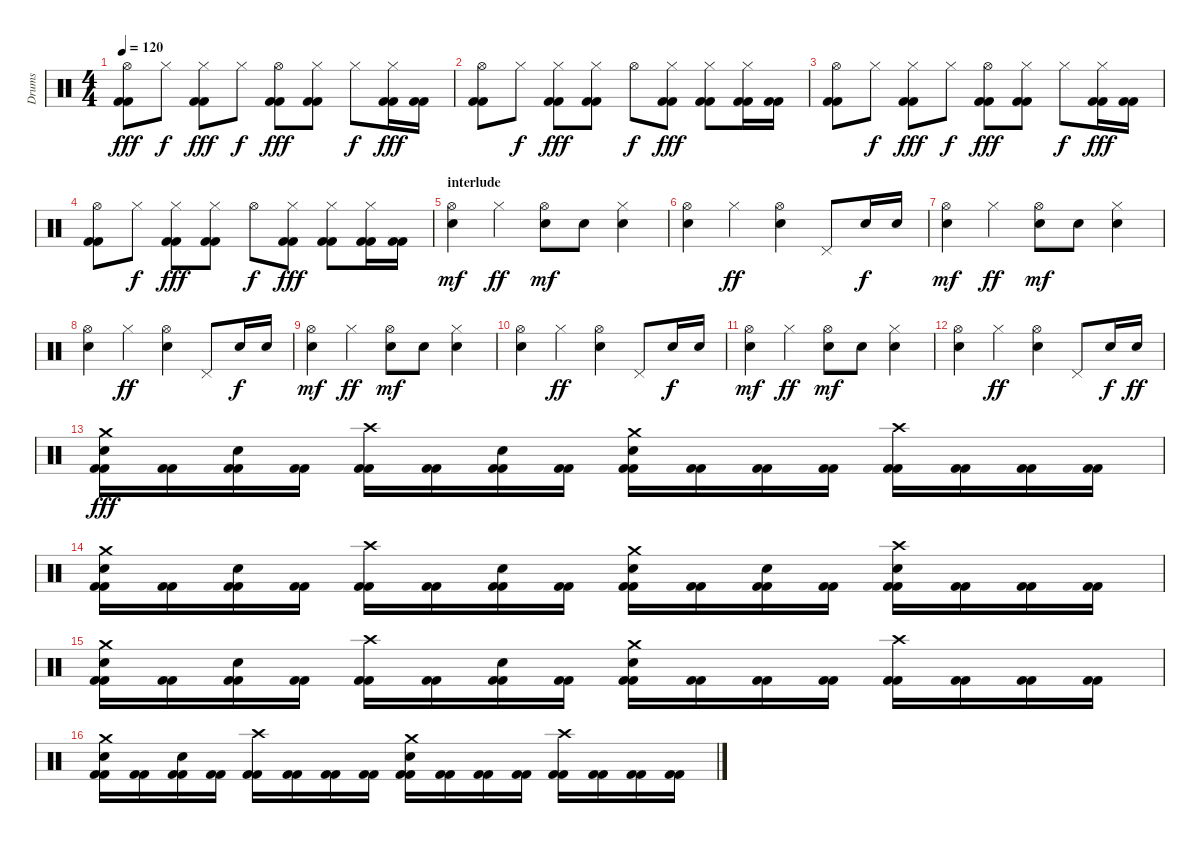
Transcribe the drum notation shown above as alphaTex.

\track ("Drums" "Drums") {instrument percussion}
\staff {score}
\articulation defaults
\ts (4 4)
\tempo 120
\clef neutral
\ks c
("Hi-Hat (open)" "Kick (hit) 2" "Kick (hit) 2").8{dy fff} "Hi-Hat (closed)".8{dy f} ("Hi-Hat (closed)" "Kick (hit) 2" "Kick (hit) 2").8{dy fff} "Hi-Hat (closed)".8{dy f} ("Hi-Hat (open)" "Kick (hit) 2" "Kick (hit) 2").8{dy fff} ("Hi-Hat (closed)" "Kick (hit) 2" "Kick (hit) 2").8 "Hi-Hat (closed)".8{dy f} ("Hi-Hat (closed)" "Kick (hit) 2" "Kick (hit) 2").16{dy fff} ("Kick (hit) 2" "Kick (hit) 2").16 |
("Hi-Hat (open)" "Kick (hit) 2" "Kick (hit) 2").8 "Hi-Hat (closed)".8{dy f} ("Hi-Hat (closed)" "Kick (hit) 2" "Kick (hit) 2").8{dy fff} ("Hi-Hat (closed)" "Kick (hit) 2" "Kick (hit) 2").8 "Hi-Hat (open)".8{dy f} ("Hi-Hat (closed)" "Kick (hit) 2" "Kick (hit) 2").8{dy fff} ("Hi-Hat (closed)" "Kick (hit) 2" "Kick (hit) 2").8 ("Hi-Hat (closed)" "Kick (hit) 2" "Kick (hit) 2").16 ("Kick (hit) 2" "Kick (hit) 2").16 |
("Hi-Hat (open)" "Kick (hit) 2" "Kick (hit) 2").8 "Hi-Hat (closed)".8{dy f} ("Hi-Hat (closed)" "Kick (hit) 2" "Kick (hit) 2").8{dy fff} "Hi-Hat (closed)".8{dy f} ("Hi-Hat (open)" "Kick (hit) 2" "Kick (hit) 2").8{dy fff} ("Hi-Hat (closed)" "Kick (hit) 2" "Kick (hit) 2").8 "Hi-Hat (closed)".8{dy f} ("Hi-Hat (closed)" "Kick (hit) 2" "Kick (hit) 2").16{dy fff} ("Kick (hit) 2" "Kick (hit) 2").16 |
("Hi-Hat (open)" "Kick (hit) 2" "Kick (hit) 2").8 "Hi-Hat (closed)".8{dy f} ("Hi-Hat (closed)" "Kick (hit) 2" "Kick (hit) 2").8{dy fff} ("Hi-Hat (closed)" "Kick (hit) 2" "Kick (hit) 2").8 "Hi-Hat (open)".8{dy f} ("Hi-Hat (closed)" "Kick (hit) 2" "Kick (hit) 2").8{dy fff} ("Hi-Hat (closed)" "Kick (hit) 2" "Kick (hit) 2").8 ("Hi-Hat (closed)" "Kick (hit) 2" "Kick (hit) 2").16 ("Kick (hit) 2" "Kick (hit) 2").16 |
\section ("" "interlude")
("Hi-Hat (open)" "Electric Snare (hit)").4{dy mf} "Hi-Hat (closed)".4{dy ff} ("Hi-Hat (open)" "Electric Snare (hit)").8{dy mf} "Electric Snare (hit)".8 ("Hi-Hat (closed)" "Electric Snare (hit)").4 |
("Hi-Hat (open)" "Electric Snare (hit)").4 "Hi-Hat (closed)".4{dy ff} ("Electric Snare (hit)" "Hi-Hat (open)").4 "Pedal Hi-Hat (hit)".8 "Electric Snare (hit)".16{dy f} "Electric Snare (hit)".16 |
("Hi-Hat (open)" "Electric Snare (hit)").4{dy mf} "Hi-Hat (closed)".4{dy ff} ("Hi-Hat (open)" "Electric Snare (hit)").8{dy mf} "Electric Snare (hit)".8 ("Hi-Hat (closed)" "Electric Snare (hit)").4 |
("Hi-Hat (open)" "Electric Snare (hit)").4 "Hi-Hat (closed)".4{dy ff} ("Electric Snare (hit)" "Hi-Hat (open)").4 "Pedal Hi-Hat (hit)".8 "Electric Snare (hit)".16{dy f} "Electric Snare (hit)".16 |
("Hi-Hat (open)" "Electric Snare (hit)").4{dy mf} "Hi-Hat (closed)".4{dy ff} ("Hi-Hat (open)" "Electric Snare (hit)").8{dy mf} "Electric Snare (hit)".8 ("Hi-Hat (closed)" "Electric Snare (hit)").4 |
("Hi-Hat (open)" "Electric Snare (hit)").4 "Hi-Hat (closed)".4{dy ff} ("Electric Snare (hit)" "Hi-Hat (open)").4 "Pedal Hi-Hat (hit)".8 "Electric Snare (hit)".16{dy f} "Electric Snare (hit)".16 |
("Hi-Hat (open)" "Electric Snare (hit)").4{dy mf} "Hi-Hat (closed)".4{dy ff} ("Hi-Hat (open)" "Electric Snare (hit)").8{dy mf} "Electric Snare (hit)".8 ("Hi-Hat (closed)" "Electric Snare (hit)").4 |
("Hi-Hat (open)" "Electric Snare (hit)").4 "Hi-Hat (closed)".4{dy ff} ("Electric Snare (hit)" "Hi-Hat (open)").4 "Pedal Hi-Hat (hit)".8 "Electric Snare (hit)".16{dy f} "Electric Snare (hit)".16{dy ff} |
("Crash medium (hit)" "Electric Snare (hit)" "Kick (hit) 2" "Kick (hit) 2").16{dy fff} ("Kick (hit) 2" "Kick (hit) 2").16 ("Electric Snare (hit)" "Kick (hit) 2" "Kick (hit) 2").16 ("Kick (hit) 2" "Kick (hit) 2").16 ("Crash high (hit)" "Kick (hit) 2" "Kick (hit) 2").16 ("Kick (hit) 2" "Kick (hit) 2").16 ("Electric Snare (hit)" "Kick (hit) 2" "Kick (hit) 2").16 ("Kick (hit) 2" "Kick (hit) 2").16 ("Crash medium (hit)" "Electric Snare (hit)" "Kick (hit) 2" "Kick (hit) 2").16 ("Kick (hit) 2" "Kick (hit) 2").16 ("Kick (hit) 2" "Kick (hit) 2").16 ("Kick (hit) 2" "Kick (hit) 2").16 ("Crash high (hit)" "Kick (hit) 2" "Kick (hit) 2").16 ("Kick (hit) 2" "Kick (hit) 2").16 ("Kick (hit) 2" "Kick (hit) 2").16 ("Kick (hit) 2" "Kick (hit) 2").16 |
("Crash medium (hit)" "Electric Snare (hit)" "Kick (hit) 2" "Kick (hit) 2").16 ("Kick (hit) 2" "Kick (hit) 2").16 ("Electric Snare (hit)" "Kick (hit) 2" "Kick (hit) 2").16 ("Kick (hit) 2" "Kick (hit) 2").16 ("Crash high (hit)" "Kick (hit) 2" "Kick (hit) 2").16 ("Kick (hit) 2" "Kick (hit) 2").16 ("Electric Snare (hit)" "Kick (hit) 2" "Kick (hit) 2").16 ("Kick (hit) 2" "Kick (hit) 2").16 ("Crash medium (hit)" "Electric Snare (hit)" "Kick (hit) 2" "Kick (hit) 2").16 ("Kick (hit) 2" "Kick (hit) 2").16 ("Electric Snare (hit)" "Kick (hit) 2" "Kick (hit) 2").16 ("Kick (hit) 2" "Kick (hit) 2").16 ("Crash high (hit)" "Electric Snare (hit)" "Kick (hit) 2" "Kick (hit) 2").16 ("Kick (hit) 2" "Kick (hit) 2").16 ("Kick (hit) 2" "Kick (hit) 2").16 ("Kick (hit) 2" "Kick (hit) 2").16 |
("Crash medium (hit)" "Electric Snare (hit)" "Kick (hit) 2" "Kick (hit) 2").16 ("Kick (hit) 2" "Kick (hit) 2").16 ("Electric Snare (hit)" "Kick (hit) 2" "Kick (hit) 2").16 ("Kick (hit) 2" "Kick (hit) 2").16 ("Crash high (hit)" "Kick (hit) 2" "Kick (hit) 2").16 ("Kick (hit) 2" "Kick (hit) 2").16 ("Electric Snare (hit)" "Kick (hit) 2" "Kick (hit) 2").16 ("Kick (hit) 2" "Kick (hit) 2").16 ("Crash medium (hit)" "Electric Snare (hit)" "Kick (hit) 2" "Kick (hit) 2").16 ("Kick (hit) 2" "Kick (hit) 2").16 ("Kick (hit) 2" "Kick (hit) 2").16 ("Kick (hit) 2" "Kick (hit) 2").16 ("Crash high (hit)" "Kick (hit) 2" "Kick (hit) 2").16 ("Kick (hit) 2" "Kick (hit) 2").16 ("Kick (hit) 2" "Kick (hit) 2").16 ("Kick (hit) 2" "Kick (hit) 2").16 |
("Crash medium (hit)" "Electric Snare (hit)" "Kick (hit) 2" "Kick (hit) 2").16 ("Kick (hit) 2" "Kick (hit) 2").16 ("Electric Snare (hit)" "Kick (hit) 2" "Kick (hit) 2").16 ("Kick (hit) 2" "Kick (hit) 2").16 ("Crash high (hit)" "Kick (hit) 2" "Kick (hit) 2").16 ("Kick (hit) 2" "Kick (hit) 2").16 ("Kick (hit) 2" "Kick (hit) 2").16 ("Kick (hit) 2" "Kick (hit) 2").16 ("Crash medium (hit)" "Electric Snare (hit)" "Kick (hit) 2" "Kick (hit) 2").16 ("Kick (hit) 2" "Kick (hit) 2").16 ("Kick (hit) 2" "Kick (hit) 2").16 ("Kick (hit) 2" "Kick (hit) 2").16 ("Crash high (hit)" "Kick (hit) 2" "Kick (hit) 2").16 ("Kick (hit) 2" "Kick (hit) 2").16 ("Kick (hit) 2" "Kick (hit) 2").16 ("Kick (hit) 2" "Kick (hit) 2").16
